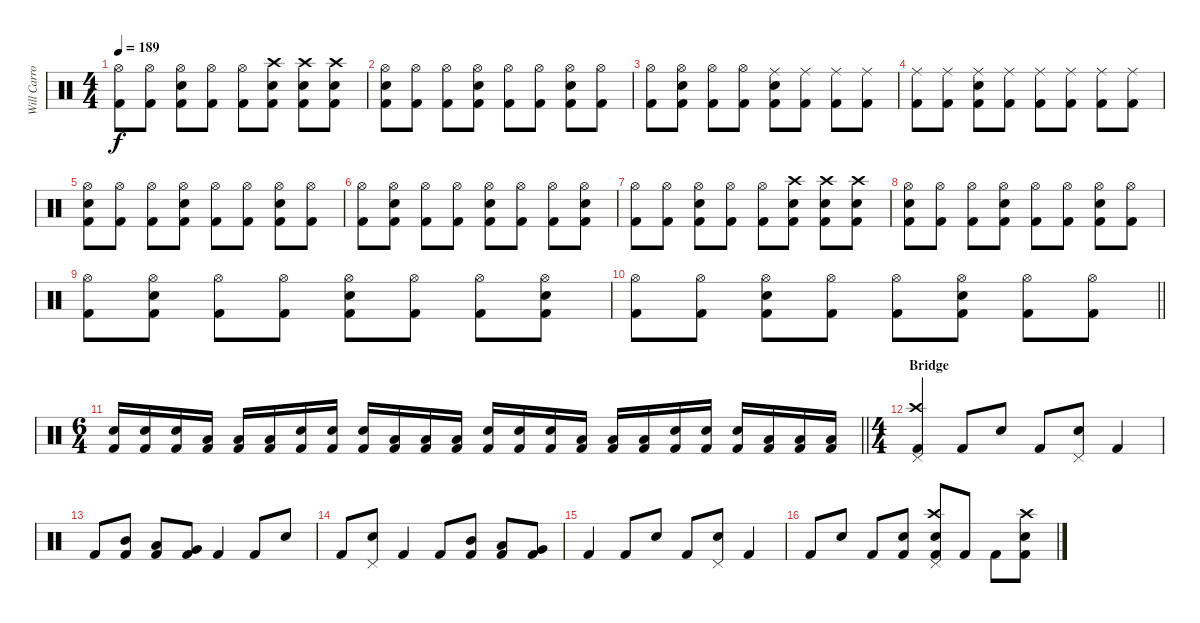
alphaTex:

\track ("Will Carroll" "Will Carro") {instrument percussion}
\staff {score}
\articulation defaults
\ts (4 4)
\tempo 189
\clef neutral
\ks c
("Hi-Hat (open)" "Kick (hit) 2").8{dy f} ("Hi-Hat (open)" "Kick (hit) 2").8 ("Hi-Hat (open)" "Electric Snare (hit)" "Kick (hit) 2").8 ("Hi-Hat (open)" "Kick (hit) 2").8 ("Hi-Hat (open)" "Kick (hit) 2").8 ("Crash high (hit)" "Electric Snare (hit)" "Kick (hit) 2").8 ("Crash high (hit)" "Electric Snare (hit)" "Kick (hit) 2").8 ("Crash high (hit)" "Electric Snare (hit)" "Kick (hit) 2").8 |
("Hi-Hat (open)" "Electric Snare (hit)" "Kick (hit) 2").8 ("Hi-Hat (open)" "Kick (hit) 2").8 ("Hi-Hat (open)" "Kick (hit) 2").8 ("Hi-Hat (open)" "Electric Snare (hit)" "Kick (hit) 2").8 ("Hi-Hat (open)" "Kick (hit) 2").8 ("Hi-Hat (open)" "Kick (hit) 2").8 ("Hi-Hat (open)" "Electric Snare (hit)" "Kick (hit) 2").8 ("Hi-Hat (open)" "Kick (hit) 2").8 |
("Hi-Hat (open)" "Kick (hit) 2").8 ("Hi-Hat (open)" "Electric Snare (hit)" "Kick (hit) 2").8 ("Hi-Hat (open)" "Kick (hit) 2").8 ("Hi-Hat (open)" "Kick (hit) 2").8 ("Ride (middle)" "Electric Snare (hit)" "Kick (hit) 2").8 ("Ride (middle)" "Kick (hit) 2").8 ("Ride (middle)" "Kick (hit) 2").8 ("Ride (middle)" "Kick (hit) 2").8 |
("Ride (middle)" "Kick (hit) 2").8 ("Ride (middle)" "Kick (hit) 2").8 ("Ride (middle)" "Electric Snare (hit)" "Kick (hit) 2").8 ("Ride (middle)" "Kick (hit) 2").8 ("Ride (middle)" "Kick (hit) 2").8 ("Ride (middle)" "Kick (hit) 2").8 ("Ride (middle)" "Kick (hit) 2").8 ("Ride (middle)" "Kick (hit) 2").8 |
("Hi-Hat (open)" "Electric Snare (hit)" "Kick (hit) 2").8 ("Hi-Hat (open)" "Kick (hit) 2").8 ("Hi-Hat (open)" "Kick (hit) 2").8 ("Hi-Hat (open)" "Electric Snare (hit)" "Kick (hit) 2").8 ("Hi-Hat (open)" "Kick (hit) 2").8 ("Hi-Hat (open)" "Kick (hit) 2").8 ("Hi-Hat (open)" "Electric Snare (hit)" "Kick (hit) 2").8 ("Hi-Hat (open)" "Kick (hit) 2").8 |
("Hi-Hat (open)" "Kick (hit) 2").8 ("Hi-Hat (open)" "Electric Snare (hit)" "Kick (hit) 2").8 ("Hi-Hat (open)" "Kick (hit) 2").8 ("Hi-Hat (open)" "Kick (hit) 2").8 ("Hi-Hat (open)" "Electric Snare (hit)" "Kick (hit) 2").8 ("Hi-Hat (open)" "Kick (hit) 2").8 ("Hi-Hat (open)" "Kick (hit) 2").8 ("Hi-Hat (open)" "Electric Snare (hit)" "Kick (hit) 2").8 |
("Hi-Hat (open)" "Kick (hit) 2").8 ("Hi-Hat (open)" "Kick (hit) 2").8 ("Hi-Hat (open)" "Electric Snare (hit)" "Kick (hit) 2").8 ("Hi-Hat (open)" "Kick (hit) 2").8 ("Hi-Hat (open)" "Kick (hit) 2").8 ("Crash high (hit)" "Electric Snare (hit)" "Kick (hit) 2").8 ("Crash high (hit)" "Electric Snare (hit)" "Kick (hit) 2").8 ("Crash high (hit)" "Electric Snare (hit)" "Kick (hit) 2").8 |
("Hi-Hat (open)" "Electric Snare (hit)" "Kick (hit) 2").8 ("Hi-Hat (open)" "Kick (hit) 2").8 ("Hi-Hat (open)" "Kick (hit) 2").8 ("Hi-Hat (open)" "Electric Snare (hit)" "Kick (hit) 2").8 ("Hi-Hat (open)" "Kick (hit) 2").8 ("Hi-Hat (open)" "Kick (hit) 2").8 ("Hi-Hat (open)" "Electric Snare (hit)" "Kick (hit) 2").8 ("Hi-Hat (open)" "Kick (hit) 2").8 |
("Hi-Hat (open)" "Kick (hit) 2").8 ("Hi-Hat (open)" "Electric Snare (hit)" "Kick (hit) 2").8 ("Hi-Hat (open)" "Kick (hit) 2").8 ("Hi-Hat (open)" "Kick (hit) 2").8 ("Hi-Hat (open)" "Electric Snare (hit)" "Kick (hit) 2").8 ("Hi-Hat (open)" "Kick (hit) 2").8 ("Hi-Hat (open)" "Kick (hit) 2").8 ("Hi-Hat (open)" "Electric Snare (hit)" "Kick (hit) 2").8 |
\barLineRight lightlight
("Hi-Hat (open)" "Kick (hit) 2").8 ("Hi-Hat (open)" "Kick (hit) 2").8 ("Hi-Hat (open)" "Electric Snare (hit)" "Kick (hit) 2").8 ("Hi-Hat (open)" "Kick (hit) 2").8 ("Hi-Hat (open)" "Kick (hit) 2").8 ("Hi-Hat (open)" "Electric Snare (hit)" "Kick (hit) 2").8 ("Hi-Hat (open)" "Kick (hit) 2").8 ("Hi-Hat (open)" "Kick (hit) 2").8 |
\ts (6 4)
\barLineRight lightlight
("Electric Snare (hit)" "Kick (hit) 2").16 ("Electric Snare (hit)" "Kick (hit) 2").16 ("Electric Snare (hit)" "Kick (hit) 2").16 ("Low Floor Tom (hit)" "Kick (hit) 2").16 ("Low Floor Tom (hit)" "Kick (hit) 2").16 ("Low Floor Tom (hit)" "Kick (hit) 2").16 ("Electric Snare (hit)" "Kick (hit) 2").16 ("Electric Snare (hit)" "Kick (hit) 2").16 ("Electric Snare (hit)" "Kick (hit) 2").16 ("Low Floor Tom (hit)" "Kick (hit) 2").16 ("Low Floor Tom (hit)" "Kick (hit) 2").16 ("Low Floor Tom (hit)" "Kick (hit) 2").16 ("Electric Snare (hit)" "Kick (hit) 2").16 ("Electric Snare (hit)" "Kick (hit) 2").16 ("Electric Snare (hit)" "Kick (hit) 2").16 ("Low Floor Tom (hit)" "Kick (hit) 2").16 ("Low Floor Tom (hit)" "Kick (hit) 2").16 ("Low Floor Tom (hit)" "Kick (hit) 2").16 ("Electric Snare (hit)" "Kick (hit) 2").16 ("Electric Snare (hit)" "Kick (hit) 2").16 ("Electric Snare (hit)" "Kick (hit) 2").16 ("Low Floor Tom (hit)" "Kick (hit) 2").16 ("Low Floor Tom (hit)" "Kick (hit) 2").16 ("Low Floor Tom (hit)" "Kick (hit) 2").16 |
\ts (4 4)
\section ("" "Bridge")
("Crash high (hit)" "Pedal Hi-Hat (hit)" "Kick (hit) 2").4 "Kick (hit) 2".8 "Electric Snare (hit)".8 "Kick (hit) 2".8 ("Pedal Hi-Hat (hit)" "Electric Snare (hit)").8 "Kick (hit) 2".4 |
"Kick (hit) 2".8 ("Mid Tom (hit)" "Kick (hit) 2").8 ("Low Tom (hit)" "Kick (hit) 2").8 ("Very Low Tom (hit)" "Kick (hit) 2").8 "Kick (hit) 2".4 "Kick (hit) 2".8 "Electric Snare (hit)".8 |
"Kick (hit) 2".8 ("Pedal Hi-Hat (hit)" "Electric Snare (hit)").8 "Kick (hit) 2".4 "Kick (hit) 2".8 ("Mid Tom (hit)" "Kick (hit) 2").8 ("Low Tom (hit)" "Kick (hit) 2").8 ("Very Low Tom (hit)" "Kick (hit) 2").8 |
"Kick (hit) 2".4 "Kick (hit) 2".8 "Electric Snare (hit)".8 "Kick (hit) 2".8 ("Pedal Hi-Hat (hit)" "Electric Snare (hit)").8 "Kick (hit) 2".4 |
"Kick (hit) 2".8 "Electric Snare (hit)".8 "Kick (hit) 2".8 ("Electric Snare (hit)" "Kick (hit) 2").8 ("Crash high (hit)" "Pedal Hi-Hat (hit)" "Electric Snare (hit)" "Kick (hit) 2").8 "Kick (hit) 2".8 "Kick (hit) 2".8 ("Crash high (hit)" "Electric Snare (hit)" "Kick (hit) 2").8
